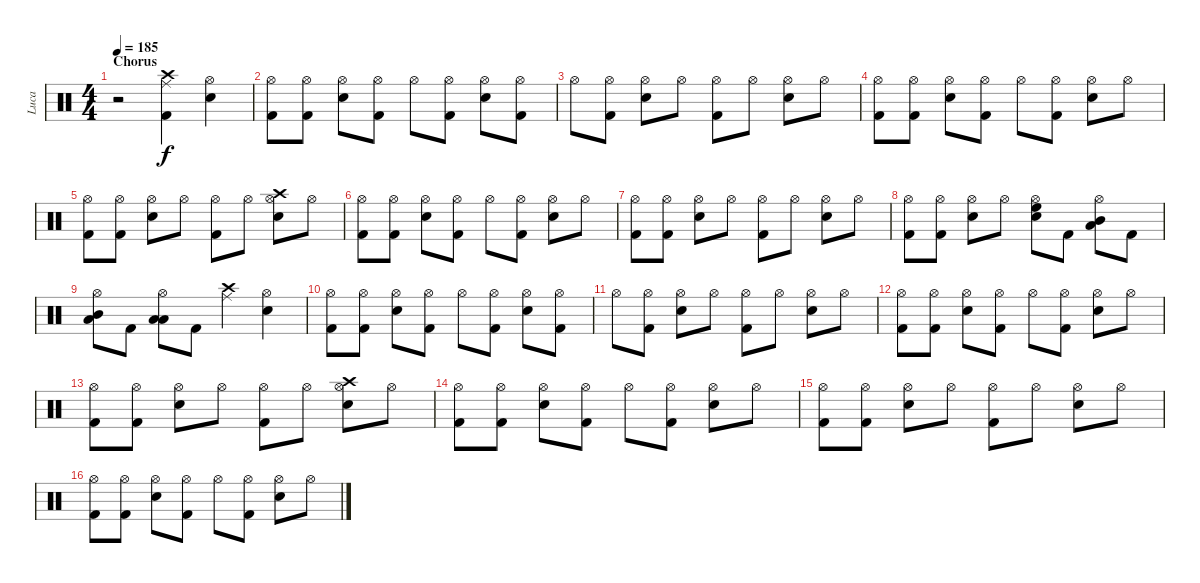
\track ("Luca" "Luca") {instrument percussion}
\staff {score}
\articulation defaults
\ts (4 4)
\section ("" "Chorus")
\tempo 185
\clef neutral
\ks c
r.2{dy f} ("Crash high (hit)" "Ride (middle)" "Kick (hit) 2").4 ("Hi-Hat (open)" "Snare (hit) 2").4 |
("Hi-Hat (open)" "Kick (hit) 2").8 ("Hi-Hat (open)" "Kick (hit) 2").8 ("Hi-Hat (open)" "Snare (hit) 2").8 ("Hi-Hat (open)" "Kick (hit) 2").8 "Hi-Hat (open)".8 ("Hi-Hat (open)" "Kick (hit) 2").8 ("Hi-Hat (open)" "Snare (hit) 2").8 ("Hi-Hat (open)" "Kick (hit) 2").8 |
"Hi-Hat (open)".8 ("Hi-Hat (open)" "Kick (hit) 2").8 ("Hi-Hat (open)" "Snare (hit) 2").8 "Hi-Hat (open)".8 ("Hi-Hat (open)" "Kick (hit) 2").8 "Hi-Hat (open)".8 ("Hi-Hat (open)" "Snare (hit) 2").8 "Hi-Hat (open)".8 |
("Hi-Hat (open)" "Kick (hit) 2").8 ("Hi-Hat (open)" "Kick (hit) 2").8 ("Hi-Hat (open)" "Snare (hit) 2").8 ("Hi-Hat (open)" "Kick (hit) 2").8 "Hi-Hat (open)".8 ("Hi-Hat (open)" "Kick (hit) 2").8 ("Hi-Hat (open)" "Snare (hit) 2").8 "Hi-Hat (open)".8 |
("Hi-Hat (open)" "Kick (hit) 2").8 ("Hi-Hat (open)" "Kick (hit) 2").8 ("Hi-Hat (open)" "Snare (hit) 2").8 "Hi-Hat (open)".8 ("Hi-Hat (open)" "Kick (hit) 2").8 "Hi-Hat (open)".8 ("Hi-Hat (open)" "Crash high (hit)" "Snare (hit) 2").8 "Hi-Hat (open)".8 |
("Hi-Hat (open)" "Kick (hit) 2").8 ("Hi-Hat (open)" "Kick (hit) 2").8 ("Hi-Hat (open)" "Snare (hit) 2").8 ("Hi-Hat (open)" "Kick (hit) 2").8 "Hi-Hat (open)".8 ("Hi-Hat (open)" "Kick (hit) 2").8 ("Hi-Hat (open)" "Snare (hit) 2").8 "Hi-Hat (open)".8 |
("Hi-Hat (open)" "Kick (hit) 2").8 ("Hi-Hat (open)" "Kick (hit) 2").8 ("Hi-Hat (open)" "Snare (hit) 2").8 "Hi-Hat (open)".8 ("Hi-Hat (open)" "Kick (hit) 2").8 "Hi-Hat (open)".8 ("Hi-Hat (open)" "Snare (hit) 2").8 "Hi-Hat (open)".8 |
("Hi-Hat (open)" "Kick (hit) 2").8 ("Hi-Hat (open)" "Kick (hit) 2").8 ("Hi-Hat (open)" "Snare (hit) 2").8 "Hi-Hat (open)".8 ("Hi-Hat (open)" "High Floor Tom (hit)" "Snare (hit) 2").8 "Kick (hit) 2".8 ("Hi-Hat (open)" "Mid Tom (hit)" "Low Tom (hit)").8 "Kick (hit) 2".8 |
("Hi-Hat (open)" "Mid Tom (hit)" "Low Floor Tom (hit)").8 "Kick (hit) 2".8 ("Hi-Hat (open)" "Low Tom (hit)" "Low Floor Tom (hit)").8 "Kick (hit) 2".8 ("Crash high (hit)" "Ride (middle)").4 ("Hi-Hat (open)" "Snare (hit) 2").4 |
("Hi-Hat (open)" "Kick (hit) 2").8 ("Hi-Hat (open)" "Kick (hit) 2").8 ("Hi-Hat (open)" "Snare (hit) 2").8 ("Hi-Hat (open)" "Kick (hit) 2").8 "Hi-Hat (open)".8 ("Hi-Hat (open)" "Kick (hit) 2").8 ("Hi-Hat (open)" "Snare (hit) 2").8 ("Hi-Hat (open)" "Kick (hit) 2").8 |
"Hi-Hat (open)".8 ("Hi-Hat (open)" "Kick (hit) 2").8 ("Hi-Hat (open)" "Snare (hit) 2").8 "Hi-Hat (open)".8 ("Hi-Hat (open)" "Kick (hit) 2").8 "Hi-Hat (open)".8 ("Hi-Hat (open)" "Snare (hit) 2").8 "Hi-Hat (open)".8 |
("Hi-Hat (open)" "Kick (hit) 2").8 ("Hi-Hat (open)" "Kick (hit) 2").8 ("Hi-Hat (open)" "Snare (hit) 2").8 ("Hi-Hat (open)" "Kick (hit) 2").8 "Hi-Hat (open)".8 ("Hi-Hat (open)" "Kick (hit) 2").8 ("Hi-Hat (open)" "Snare (hit) 2").8 "Hi-Hat (open)".8 |
("Hi-Hat (open)" "Kick (hit) 2").8 ("Hi-Hat (open)" "Kick (hit) 2").8 ("Hi-Hat (open)" "Snare (hit) 2").8 "Hi-Hat (open)".8 ("Hi-Hat (open)" "Kick (hit) 2").8 "Hi-Hat (open)".8 ("Hi-Hat (open)" "Crash high (hit)" "Snare (hit) 2").8 "Hi-Hat (open)".8 |
("Hi-Hat (open)" "Kick (hit) 2").8 ("Hi-Hat (open)" "Kick (hit) 2").8 ("Hi-Hat (open)" "Snare (hit) 2").8 ("Hi-Hat (open)" "Kick (hit) 2").8 "Hi-Hat (open)".8 ("Hi-Hat (open)" "Kick (hit) 2").8 ("Hi-Hat (open)" "Snare (hit) 2").8 "Hi-Hat (open)".8 |
("Hi-Hat (open)" "Kick (hit) 2").8 ("Hi-Hat (open)" "Kick (hit) 2").8 ("Hi-Hat (open)" "Snare (hit) 2").8 "Hi-Hat (open)".8 ("Hi-Hat (open)" "Kick (hit) 2").8 "Hi-Hat (open)".8 ("Hi-Hat (open)" "Snare (hit) 2").8 "Hi-Hat (open)".8 |
("Hi-Hat (open)" "Kick (hit) 2").8 ("Hi-Hat (open)" "Kick (hit) 2").8 ("Hi-Hat (open)" "Snare (hit) 2").8 ("Hi-Hat (open)" "Kick (hit) 2").8 "Hi-Hat (open)".8 ("Hi-Hat (open)" "Kick (hit) 2").8 ("Hi-Hat (open)" "Snare (hit) 2").8 "Hi-Hat (open)".8
